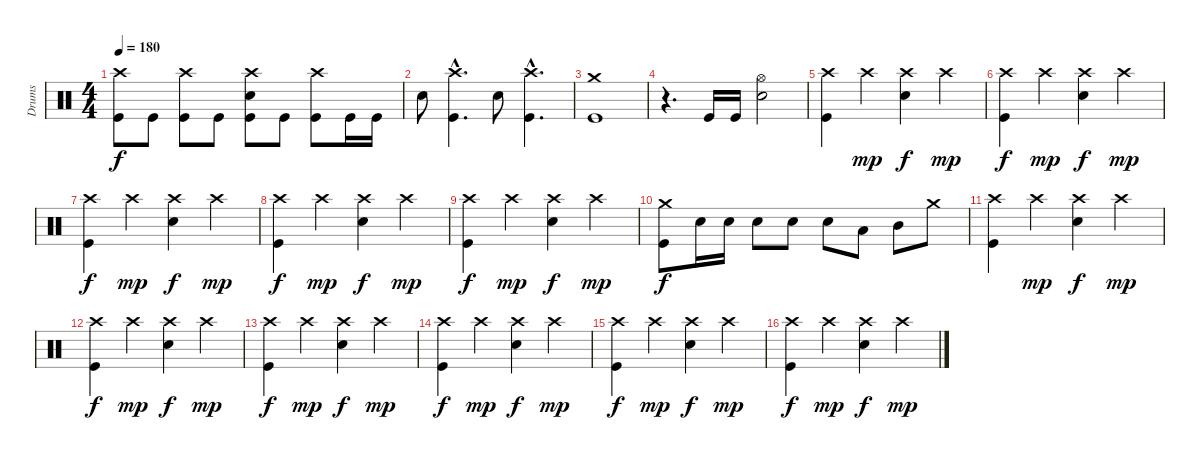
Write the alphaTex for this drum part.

\track ("Drums" "Drums") {instrument percussion}
\staff {score}
\articulation defaults
\ts (4 4)
\tempo 180
\clef neutral
\ks c
("Crash high (hit)" "Kick (hit)").8{dy f} "Kick (hit)".8 ("Crash high (hit)" "Kick (hit)").8 "Kick (hit)".8 ("Crash high (hit)" "Electric Snare (hit)" "Kick (hit)").8 "Kick (hit)".8 ("Crash high (hit)" "Kick (hit)").8 "Kick (hit)".16 "Kick (hit)".16 |
"Electric Snare (hit)".8 ("Crash high (hit)"{hac} "Kick (hit)"{hac}).4{d} "Electric Snare (hit)".8 ("Crash high (hit)"{hac} "Kick (hit)"{hac}).4{d} |
("Crash medium (hit)" "Kick (hit)").1 |
r.4{d} "Kick (hit)".16 "Kick (hit)".16 ("Hi-Hat (open)" "Electric Snare (hit)").2 |
("Crash high (hit)" "Kick (hit)").4 "Crash high (hit)".4{dy mp} ("Crash high (hit)" "Electric Snare (hit)").4{dy f} "Crash high (hit)".4{dy mp} |
("Crash high (hit)" "Kick (hit)").4{dy f} "Crash high (hit)".4{dy mp} ("Crash high (hit)" "Electric Snare (hit)").4{dy f} "Crash high (hit)".4{dy mp} |
("Crash high (hit)" "Kick (hit)").4{dy f} "Crash high (hit)".4{dy mp} ("Crash high (hit)" "Electric Snare (hit)").4{dy f} "Crash high (hit)".4{dy mp} |
("Crash high (hit)" "Kick (hit)").4{dy f} "Crash high (hit)".4{dy mp} ("Crash high (hit)" "Electric Snare (hit)").4{dy f} "Crash high (hit)".4{dy mp} |
("Crash high (hit)" "Kick (hit)").4{dy f} "Crash high (hit)".4{dy mp} ("Crash high (hit)" "Electric Snare (hit)").4{dy f} "Crash high (hit)".4{dy mp} |
("Crash medium (hit)" "Kick (hit)").8{dy f} "Electric Snare (hit)".16 "Electric Snare (hit)".16 "Electric Snare (hit)".8 "Electric Snare (hit)".8 "Electric Snare (hit)".8 "Low Tom (hit)".8 "Mid Tom (hit)".8 "Crash medium (hit)".8 |
("Crash high (hit)" "Kick (hit)").4 "Crash high (hit)".4{dy mp} ("Crash high (hit)" "Electric Snare (hit)").4{dy f} "Crash high (hit)".4{dy mp} |
("Crash high (hit)" "Kick (hit)").4{dy f} "Crash high (hit)".4{dy mp} ("Crash high (hit)" "Electric Snare (hit)").4{dy f} "Crash high (hit)".4{dy mp} |
("Crash high (hit)" "Kick (hit)").4{dy f} "Crash high (hit)".4{dy mp} ("Crash high (hit)" "Electric Snare (hit)").4{dy f} "Crash high (hit)".4{dy mp} |
("Crash high (hit)" "Kick (hit)").4{dy f} "Crash high (hit)".4{dy mp} ("Crash high (hit)" "Electric Snare (hit)").4{dy f} "Crash high (hit)".4{dy mp} |
("Crash high (hit)" "Kick (hit)").4{dy f} "Crash high (hit)".4{dy mp} ("Crash high (hit)" "Electric Snare (hit)").4{dy f} "Crash high (hit)".4{dy mp} |
("Crash high (hit)" "Kick (hit)").4{dy f} "Crash high (hit)".4{dy mp} ("Crash high (hit)" "Electric Snare (hit)").4{dy f} "Crash high (hit)".4{dy mp}
